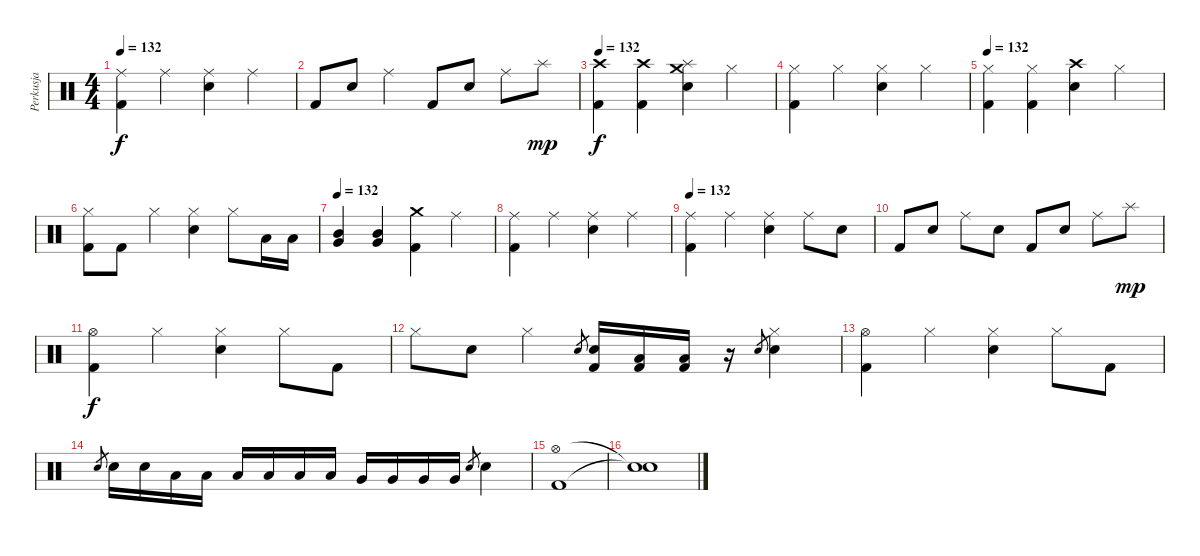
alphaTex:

\track ("Perkusja" "Perkusja") {instrument percussion}
\staff {score}
\articulation defaults
\ts (4 4)
\tempo 132
\clef neutral
\ks c
("Ride (middle)" "Kick (hit) 2").4{dy f} "Ride (middle)".4 ("Ride (middle)" "Snare (hit) 2").4 "Ride (middle)".4 |
"Kick (hit) 2".8 "Snare (hit) 2".8 "Ride (middle)".4 "Kick (hit) 2".8 "Snare (hit) 2".8 "Ride (middle)".8 "Splash (hit)".8{dy mp} |
\tempo 132
("Crash high (hit)" "Kick (hit) 2").4{dy f} ("Crash high (hit)" "Kick (hit) 2").4 ("Crash medium (hit)" "Splash (hit)" "Snare (hit) 2").4 "Hi-Hat (closed)".4 |
("Hi-Hat (closed)" "Kick (hit) 2").4 "Hi-Hat (closed)".4 ("Hi-Hat (closed)" "Snare (hit) 2").4 "Hi-Hat (closed)".4 |
\tempo 132
("Hi-Hat (closed)" "Kick (hit) 2").4 ("Hi-Hat (closed)" "Kick (hit) 2").4 ("Crash high (hit)" "Snare (hit) 2").4 "Hi-Hat (closed)".4 |
("Hi-Hat (closed)" "Kick (hit) 2").8 "Kick (hit) 2".8 "Hi-Hat (closed)".4 ("Hi-Hat (closed)" "Snare (hit) 2").4 "Hi-Hat (closed)".8 "Low Tom (hit)".16 "Low Tom (hit)".16 |
\tempo 132
("Mid Tom (hit)" "Very Low Tom (hit)").4 ("Mid Tom (hit)" "Very Low Tom (hit)").4 ("Crash medium (hit)" "Kick (hit) 2").4 "Ride (middle)".4 |
("Ride (middle)" "Kick (hit) 2").4 "Ride (middle)".4 ("Ride (middle)" "Snare (hit) 2").4 "Ride (middle)".4 |
\tempo 132
("Ride (middle)" "Kick (hit) 2").4 "Ride (middle)".4 ("Ride (middle)" "Snare (hit) 2").4 "Ride (middle)".8 "Snare (hit) 2".8 |
"Kick (hit) 2".8 "Snare (hit) 2".8 "Ride (middle)".8 "Snare (hit) 2".8 "Kick (hit) 2".8 "Snare (hit) 2".8 "Ride (middle)".8 "Splash (hit)".8{dy mp} |
("Hi-Hat (open)" "Kick (hit) 2").4{dy f} "Hi-Hat (closed)".4 ("Hi-Hat (closed)" "Snare (hit) 2").4 "Hi-Hat (closed)".8 "Kick (hit) 2".8 |
"Hi-Hat (closed)".8 "Snare (hit) 2".8 "Hi-Hat (closed)".4 "Snare (hit) 2".8{gr} ("Snare (hit) 2" "Kick (hit) 2").16 ("Low Tom (hit)" "Kick (hit) 2").16 ("Low Tom (hit)" "Kick (hit) 2").16 r.16 "Snare (hit) 2".8{gr} ("Hi-Hat (closed)" "Snare (hit) 2").4 |
("Hi-Hat (open)" "Kick (hit) 2").4 "Hi-Hat (closed)".4 ("Hi-Hat (closed)" "Snare (hit) 2").4 "Hi-Hat (closed)".8 "Kick (hit) 2".8 |
"Snare (hit) 2".8{gr} "Snare (hit) 2".16 "Snare (hit) 2".16 "Low Tom (hit)".16 "Low Tom (hit)".16 "Low Tom (hit)".16 "Low Tom (hit)".16 "Low Tom (hit)".16 "Low Tom (hit)".16 "Very Low Tom (hit)".16 "Very Low Tom (hit)".16 "Very Low Tom (hit)".16 "Very Low Tom (hit)".16 "Electric Snare (hit)".8{gr} "Electric Snare (hit)".4 |
("Hi-Hat (open)" "Kick (hit) 2").1 |
("Snare (hit)"{t} "Snare (hit)"{t}).1
